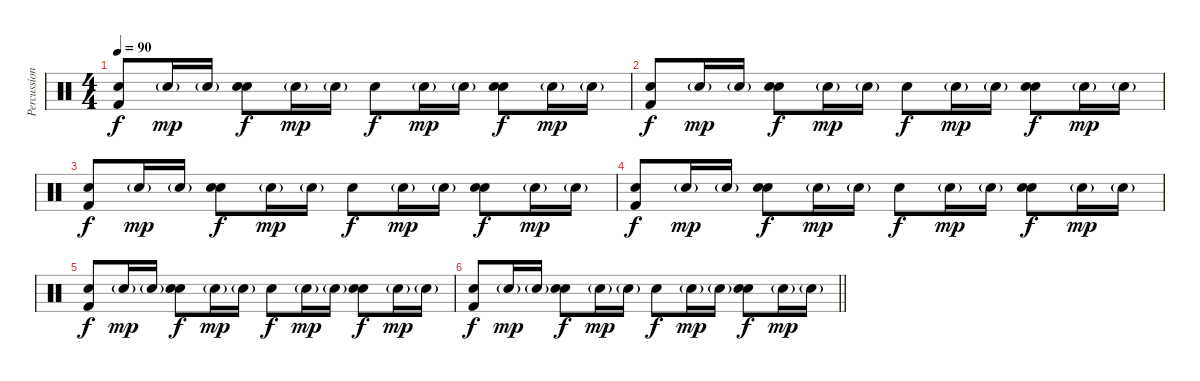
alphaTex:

\track ("Percussion" "Percussion") {instrument percussion}
\staff {score}
\articulation defaults
\ts (4 4)
\tempo 90
\clef neutral
\ks c
("Snare (hit) 2" "Kick (hit) 2").8{dy f} "Snare (hit) 2"{g}.16{dy mp} "Snare (hit) 2"{g}.16 ("Hand Clap (hit)" "Snare (hit) 2").8{dy f} "Snare (hit) 2"{g}.16{dy mp} "Snare (hit) 2"{g}.16 "Snare (hit) 2".8{dy f} "Snare (hit) 2"{g}.16{dy mp} "Snare (hit) 2"{g}.16 ("Hand Clap (hit)" "Snare (hit) 2").8{dy f} "Snare (hit) 2"{g}.16{dy mp} "Snare (hit) 2"{g}.16 |
("Snare (hit) 2" "Kick (hit) 2").8{dy f} "Snare (hit) 2"{g}.16{dy mp} "Snare (hit) 2"{g}.16 ("Hand Clap (hit)" "Snare (hit) 2").8{dy f} "Snare (hit) 2"{g}.16{dy mp} "Snare (hit) 2"{g}.16 "Snare (hit) 2".8{dy f} "Snare (hit) 2"{g}.16{dy mp} "Snare (hit) 2"{g}.16 ("Hand Clap (hit)" "Snare (hit) 2").8{dy f} "Snare (hit) 2"{g}.16{dy mp} "Snare (hit) 2"{g}.16 |
("Snare (hit) 2" "Kick (hit) 2").8{dy f} "Snare (hit) 2"{g}.16{dy mp} "Snare (hit) 2"{g}.16 ("Hand Clap (hit)" "Snare (hit) 2").8{dy f} "Snare (hit) 2"{g}.16{dy mp} "Snare (hit) 2"{g}.16 "Snare (hit) 2".8{dy f} "Snare (hit) 2"{g}.16{dy mp} "Snare (hit) 2"{g}.16 ("Hand Clap (hit)" "Snare (hit) 2").8{dy f} "Snare (hit) 2"{g}.16{dy mp} "Snare (hit) 2"{g}.16 |
("Snare (hit) 2" "Kick (hit) 2").8{dy f} "Snare (hit) 2"{g}.16{dy mp} "Snare (hit) 2"{g}.16 ("Hand Clap (hit)" "Snare (hit) 2").8{dy f} "Snare (hit) 2"{g}.16{dy mp} "Snare (hit) 2"{g}.16 "Snare (hit) 2".8{dy f} "Snare (hit) 2"{g}.16{dy mp} "Snare (hit) 2"{g}.16 ("Hand Clap (hit)" "Snare (hit) 2").8{dy f} "Snare (hit) 2"{g}.16{dy mp} "Snare (hit) 2"{g}.16 |
("Snare (hit) 2" "Kick (hit) 2").8{dy f} "Snare (hit) 2"{g}.16{dy mp} "Snare (hit) 2"{g}.16 ("Hand Clap (hit)" "Snare (hit) 2").8{dy f} "Snare (hit) 2"{g}.16{dy mp} "Snare (hit) 2"{g}.16 "Snare (hit) 2".8{dy f} "Snare (hit) 2"{g}.16{dy mp} "Snare (hit) 2"{g}.16 ("Hand Clap (hit)" "Snare (hit) 2").8{dy f} "Snare (hit) 2"{g}.16{dy mp} "Snare (hit) 2"{g}.16 |
\barLineRight lightlight
("Snare (hit) 2" "Kick (hit) 2").8{dy f} "Snare (hit) 2"{g}.16{dy mp} "Snare (hit) 2"{g}.16 ("Hand Clap (hit)" "Snare (hit) 2").8{dy f} "Snare (hit) 2"{g}.16{dy mp} "Snare (hit) 2"{g}.16 "Snare (hit) 2".8{dy f} "Snare (hit) 2"{g}.16{dy mp} "Snare (hit) 2"{g}.16 ("Hand Clap (hit)" "Snare (hit) 2").8{dy f} "Snare (hit) 2"{g}.16{dy mp} "Snare (hit) 2"{g}.16
